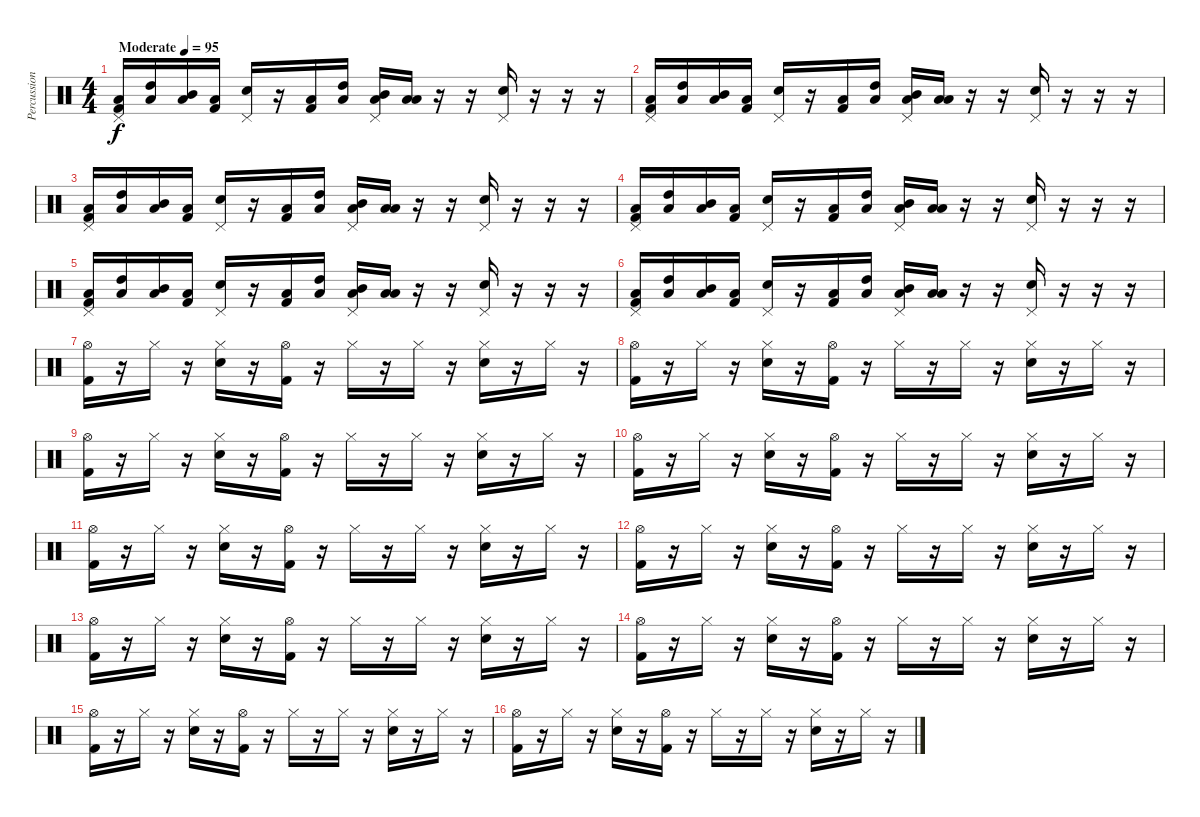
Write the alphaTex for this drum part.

\track ("Percussion" "Percussion") {instrument percussion}
\staff {score}
\articulation defaults
\ts (4 4)
\tempo (95 "Moderate")
\clef neutral
\ks c
("Pedal Hi-Hat (hit)" "Low Floor Tom (hit)" "Kick (hit) 2").16{dy f} ("High Tom (hit)" "Low Floor Tom (hit)").16 ("Mid Tom (hit)" "Low Floor Tom (hit)").16 ("Low Floor Tom (hit)" "Kick (hit) 2").16 ("Pedal Hi-Hat (hit)" "Snare (hit) 2").16 r.16 ("Low Floor Tom (hit)" "Kick (hit) 2").16 ("High Tom (hit)" "Low Floor Tom (hit)").16 ("Pedal Hi-Hat (hit)" "Mid Tom (hit)" "Low Floor Tom (hit)").16 ("Low Floor Tom (hit)" "Low Floor Tom (hit)").16 r.16 r.16 ("Pedal Hi-Hat (hit)" "Snare (hit) 2").16 r.16 r.16 r.16 |
("Pedal Hi-Hat (hit)" "Low Floor Tom (hit)" "Kick (hit) 2").16 ("High Tom (hit)" "Low Floor Tom (hit)").16 ("Mid Tom (hit)" "Low Floor Tom (hit)").16 ("Low Floor Tom (hit)" "Kick (hit) 2").16 ("Pedal Hi-Hat (hit)" "Snare (hit) 2").16 r.16 ("Low Floor Tom (hit)" "Kick (hit) 2").16 ("High Tom (hit)" "Low Floor Tom (hit)").16 ("Pedal Hi-Hat (hit)" "Mid Tom (hit)" "Low Floor Tom (hit)").16 ("Low Floor Tom (hit)" "Low Floor Tom (hit)").16 r.16 r.16 ("Pedal Hi-Hat (hit)" "Snare (hit) 2").16 r.16 r.16 r.16 |
("Pedal Hi-Hat (hit)" "Low Floor Tom (hit)" "Kick (hit) 2").16 ("High Tom (hit)" "Low Floor Tom (hit)").16 ("Mid Tom (hit)" "Low Floor Tom (hit)").16 ("Low Floor Tom (hit)" "Kick (hit) 2").16 ("Pedal Hi-Hat (hit)" "Snare (hit) 2").16 r.16 ("Low Floor Tom (hit)" "Kick (hit) 2").16 ("High Tom (hit)" "Low Floor Tom (hit)").16 ("Pedal Hi-Hat (hit)" "Mid Tom (hit)" "Low Floor Tom (hit)").16 ("Low Floor Tom (hit)" "Low Floor Tom (hit)").16 r.16 r.16 ("Pedal Hi-Hat (hit)" "Snare (hit) 2").16 r.16 r.16 r.16 |
("Pedal Hi-Hat (hit)" "Low Floor Tom (hit)" "Kick (hit) 2").16 ("High Tom (hit)" "Low Floor Tom (hit)").16 ("Mid Tom (hit)" "Low Floor Tom (hit)").16 ("Low Floor Tom (hit)" "Kick (hit) 2").16 ("Pedal Hi-Hat (hit)" "Snare (hit) 2").16 r.16 ("Low Floor Tom (hit)" "Kick (hit) 2").16 ("High Tom (hit)" "Low Floor Tom (hit)").16 ("Pedal Hi-Hat (hit)" "Mid Tom (hit)" "Low Floor Tom (hit)").16 ("Low Floor Tom (hit)" "Low Floor Tom (hit)").16 r.16 r.16 ("Pedal Hi-Hat (hit)" "Snare (hit) 2").16 r.16 r.16 r.16 |
("Pedal Hi-Hat (hit)" "Low Floor Tom (hit)" "Kick (hit) 2").16 ("High Tom (hit)" "Low Floor Tom (hit)").16 ("Mid Tom (hit)" "Low Floor Tom (hit)").16 ("Low Floor Tom (hit)" "Kick (hit) 2").16 ("Pedal Hi-Hat (hit)" "Snare (hit) 2").16 r.16 ("Low Floor Tom (hit)" "Kick (hit) 2").16 ("High Tom (hit)" "Low Floor Tom (hit)").16 ("Pedal Hi-Hat (hit)" "Mid Tom (hit)" "Low Floor Tom (hit)").16 ("Low Floor Tom (hit)" "Low Floor Tom (hit)").16 r.16 r.16 ("Pedal Hi-Hat (hit)" "Snare (hit) 2").16 r.16 r.16 r.16 |
("Pedal Hi-Hat (hit)" "Low Floor Tom (hit)" "Kick (hit) 2").16 ("High Tom (hit)" "Low Floor Tom (hit)").16 ("Mid Tom (hit)" "Low Floor Tom (hit)").16 ("Low Floor Tom (hit)" "Kick (hit) 2").16 ("Pedal Hi-Hat (hit)" "Snare (hit) 2").16 r.16 ("Low Floor Tom (hit)" "Kick (hit) 2").16 ("High Tom (hit)" "Low Floor Tom (hit)").16 ("Pedal Hi-Hat (hit)" "Mid Tom (hit)" "Low Floor Tom (hit)").16 ("Low Floor Tom (hit)" "Low Floor Tom (hit)").16 r.16 r.16 ("Pedal Hi-Hat (hit)" "Snare (hit) 2").16 r.16 r.16 r.16 |
("Hi-Hat (open)" "Kick (hit) 2").16 r.16 "Hi-Hat (closed)".16 r.16 ("Hi-Hat (closed)" "Snare (hit) 2").16 r.16 ("Hi-Hat (open)" "Kick (hit) 2").16 r.16 "Hi-Hat (closed)".16 r.16 "Hi-Hat (closed)".16 r.16 ("Hi-Hat (closed)" "Snare (hit) 2").16 r.16 "Hi-Hat (closed)".16 r.16 |
("Hi-Hat (open)" "Kick (hit) 2").16 r.16 "Hi-Hat (closed)".16 r.16 ("Hi-Hat (closed)" "Snare (hit) 2").16 r.16 ("Hi-Hat (open)" "Kick (hit) 2").16 r.16 "Hi-Hat (closed)".16 r.16 "Hi-Hat (closed)".16 r.16 ("Hi-Hat (closed)" "Snare (hit) 2").16 r.16 "Hi-Hat (closed)".16 r.16 |
("Hi-Hat (open)" "Kick (hit) 2").16 r.16 "Hi-Hat (closed)".16 r.16 ("Hi-Hat (closed)" "Snare (hit) 2").16 r.16 ("Hi-Hat (open)" "Kick (hit) 2").16 r.16 "Hi-Hat (closed)".16 r.16 "Hi-Hat (closed)".16 r.16 ("Hi-Hat (closed)" "Snare (hit) 2").16 r.16 "Hi-Hat (closed)".16 r.16 |
("Hi-Hat (open)" "Kick (hit) 2").16 r.16 "Hi-Hat (closed)".16 r.16 ("Hi-Hat (closed)" "Snare (hit) 2").16 r.16 ("Hi-Hat (open)" "Kick (hit) 2").16 r.16 "Hi-Hat (closed)".16 r.16 "Hi-Hat (closed)".16 r.16 ("Hi-Hat (closed)" "Snare (hit) 2").16 r.16 "Hi-Hat (closed)".16 r.16 |
("Hi-Hat (open)" "Kick (hit) 2").16 r.16 "Hi-Hat (closed)".16 r.16 ("Hi-Hat (closed)" "Snare (hit) 2").16 r.16 ("Hi-Hat (open)" "Kick (hit) 2").16 r.16 "Hi-Hat (closed)".16 r.16 "Hi-Hat (closed)".16 r.16 ("Hi-Hat (closed)" "Snare (hit) 2").16 r.16 "Hi-Hat (closed)".16 r.16 |
("Hi-Hat (open)" "Kick (hit) 2").16 r.16 "Hi-Hat (closed)".16 r.16 ("Hi-Hat (closed)" "Snare (hit) 2").16 r.16 ("Hi-Hat (open)" "Kick (hit) 2").16 r.16 "Hi-Hat (closed)".16 r.16 "Hi-Hat (closed)".16 r.16 ("Hi-Hat (closed)" "Snare (hit) 2").16 r.16 "Hi-Hat (closed)".16 r.16 |
("Hi-Hat (open)" "Kick (hit) 2").16 r.16 "Hi-Hat (closed)".16 r.16 ("Hi-Hat (closed)" "Snare (hit) 2").16 r.16 ("Hi-Hat (open)" "Kick (hit) 2").16 r.16 "Hi-Hat (closed)".16 r.16 "Hi-Hat (closed)".16 r.16 ("Hi-Hat (closed)" "Snare (hit) 2").16 r.16 "Hi-Hat (closed)".16 r.16 |
("Hi-Hat (open)" "Kick (hit) 2").16 r.16 "Hi-Hat (closed)".16 r.16 ("Hi-Hat (closed)" "Snare (hit) 2").16 r.16 ("Hi-Hat (open)" "Kick (hit) 2").16 r.16 "Hi-Hat (closed)".16 r.16 "Hi-Hat (closed)".16 r.16 ("Hi-Hat (closed)" "Snare (hit) 2").16 r.16 "Hi-Hat (closed)".16 r.16 |
("Hi-Hat (open)" "Kick (hit) 2").16 r.16 "Hi-Hat (closed)".16 r.16 ("Hi-Hat (closed)" "Snare (hit) 2").16 r.16 ("Hi-Hat (open)" "Kick (hit) 2").16 r.16 "Hi-Hat (closed)".16 r.16 "Hi-Hat (closed)".16 r.16 ("Hi-Hat (closed)" "Snare (hit) 2").16 r.16 "Hi-Hat (closed)".16 r.16 |
("Hi-Hat (open)" "Kick (hit) 2").16 r.16 "Hi-Hat (closed)".16 r.16 ("Hi-Hat (closed)" "Snare (hit) 2").16 r.16 ("Hi-Hat (open)" "Kick (hit) 2").16 r.16 "Hi-Hat (closed)".16 r.16 "Hi-Hat (closed)".16 r.16 ("Hi-Hat (closed)" "Snare (hit) 2").16 r.16 "Hi-Hat (closed)".16 r.16
